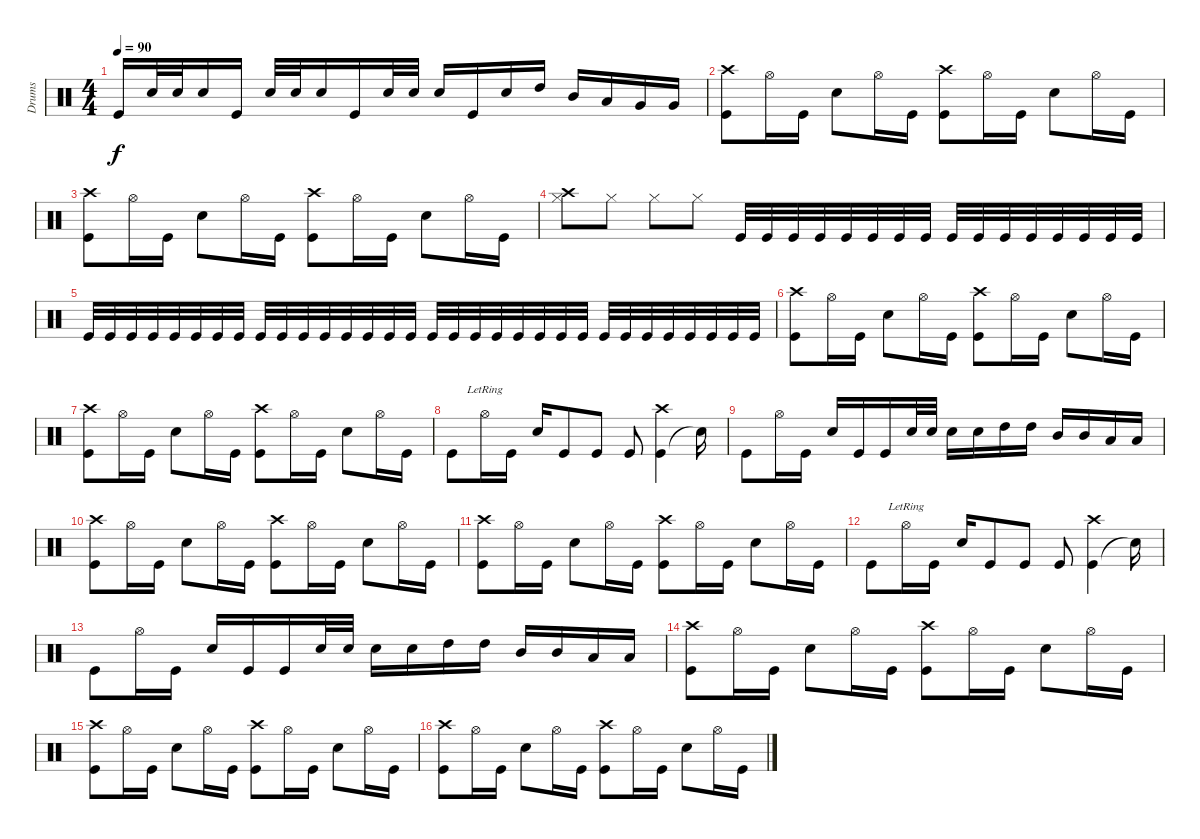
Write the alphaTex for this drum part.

\track ("Drums" "Drums") {instrument percussion}
\staff {score}
\articulation defaults
\ts (4 4)
\tempo 90
\clef neutral
\ks c "Kick (hit)".16{dy f} "Snare (hit) 2".32 "Snare (hit) 2".32 "Snare (hit) 2".16 "Kick (hit)".16 "Snare (hit) 2".32 "Snare (hit) 2".32 "Snare (hit) 2".16 "Kick (hit)".16 "Snare (hit) 2".32 "Snare (hit) 2".32 "Snare (hit) 2".16 "Kick (hit)".16 "Snare (hit) 2".16 "High Tom (hit)".16 "Mid Tom (hit)".16 "Low Tom (hit)".16 "Very Low Tom (hit)".16 "Very Low Tom (hit)".16
|
("Kick (hit)" "Crash high (hit)").8 "Hi-Hat (open)".16 "Kick (hit)".16 "Snare (hit) 2".8 "Hi-Hat (open)".16 "Kick (hit)".16 ("Kick (hit)" "Crash high (hit)").8 "Hi-Hat (open)".16 "Kick (hit)".16 "Snare (hit) 2".8 "Hi-Hat (open)".16 "Kick (hit)".16 |
("Kick (hit)" "Crash high (hit)").8 "Hi-Hat (open)".16 "Kick (hit)".16 "Snare (hit) 2".8 "Hi-Hat (open)".16 "Kick (hit)".16 ("Kick (hit)" "Crash high (hit)").8 "Hi-Hat (open)".16 "Kick (hit)".16 "Snare (hit) 2".8 "Hi-Hat (open)".16 "Kick (hit)".16 |
("Hi-Hat (closed)" "Crash high (hit)").8 "Hi-Hat (closed)".8 "Hi-Hat (closed)".8 "Hi-Hat (closed)".8 "Kick (hit)".32 "Kick (hit)".32 "Kick (hit)".32 "Kick (hit)".32 "Kick (hit)".32 "Kick (hit)".32 "Kick (hit)".32 "Kick (hit)".32 "Kick (hit)".32 "Kick (hit)".32 "Kick (hit)".32 "Kick (hit)".32 "Kick (hit)".32 "Kick (hit)".32 "Kick (hit)".32 "Kick (hit)".32 |
"Kick (hit)".32 "Kick (hit)".32 "Kick (hit)".32 "Kick (hit)".32 "Kick (hit)".32 "Kick (hit)".32 "Kick (hit)".32 "Kick (hit)".32 "Kick (hit)".32 "Kick (hit)".32 "Kick (hit)".32 "Kick (hit)".32 "Kick (hit)".32 "Kick (hit)".32 "Kick (hit)".32 "Kick (hit)".32 "Kick (hit)".32 "Kick (hit)".32 "Kick (hit)".32 "Kick (hit)".32 "Kick (hit)".32 "Kick (hit)".32 "Kick (hit)".32 "Kick (hit)".32 "Kick (hit)".32 "Kick (hit)".32 "Kick (hit)".32 "Kick (hit)".32 "Kick (hit)".32 "Kick (hit)".32 "Kick (hit)".32 "Kick (hit)".32 |
("Kick (hit)" "Crash high (hit)").8 "Hi-Hat (open)".16 "Kick (hit)".16 "Snare (hit) 2".8 "Hi-Hat (open)".16 "Kick (hit)".16 ("Kick (hit)" "Crash high (hit)").8 "Hi-Hat (open)".16 "Kick (hit)".16 "Snare (hit) 2".8 "Hi-Hat (open)".16 "Kick (hit)".16 |
("Kick (hit)" "Crash high (hit)").8 "Hi-Hat (open)".16 "Kick (hit)".16 "Snare (hit) 2".8 "Hi-Hat (open)".16 "Kick (hit)".16 ("Kick (hit)" "Crash high (hit)").8 "Hi-Hat (open)".16 "Kick (hit)".16 "Snare (hit) 2".8 "Hi-Hat (open)".16 "Kick (hit)".16 |
"Kick (hit)".8 "Hi-Hat (open)"{lr}.16 "Kick (hit)".16 "Snare (hit) 2".16 "Kick (hit)".8 "Kick (hit)".8 "Kick (hit)".8 ("Kick (hit)" "Crash high (hit)").4 "Snare (hit)"{t}.16 |
"Kick (hit)".8 "Hi-Hat (open)".16 "Kick (hit)".16 "Snare (hit) 2".16 "Kick (hit)".16 "Kick (hit)".16 "Snare (hit) 2".32 "Snare (hit) 2".32 "Snare (hit) 2".16 "Snare (hit) 2".16 "High Tom (hit)".16 "High Tom (hit)".16 "Mid Tom (hit)".16 "Mid Tom (hit)".16 "Low Tom (hit)".16 "Low Tom (hit)".16 |
("Kick (hit)" "Crash high (hit)").8 "Hi-Hat (open)".16 "Kick (hit)".16 "Snare (hit) 2".8 "Hi-Hat (open)".16 "Kick (hit)".16 ("Kick (hit)" "Crash high (hit)").8 "Hi-Hat (open)".16 "Kick (hit)".16 "Snare (hit) 2".8 "Hi-Hat (open)".16 "Kick (hit)".16 |
("Kick (hit)" "Crash high (hit)").8 "Hi-Hat (open)".16 "Kick (hit)".16 "Snare (hit) 2".8 "Hi-Hat (open)".16 "Kick (hit)".16 ("Kick (hit)" "Crash high (hit)").8 "Hi-Hat (open)".16 "Kick (hit)".16 "Snare (hit) 2".8 "Hi-Hat (open)".16 "Kick (hit)".16 |
"Kick (hit)".8 "Hi-Hat (open)"{lr}.16 "Kick (hit)".16 "Snare (hit) 2".16 "Kick (hit)".8 "Kick (hit)".8 "Kick (hit)".8 ("Kick (hit)" "Crash high (hit)").4 "Snare (hit)"{t}.16 |
"Kick (hit)".8 "Hi-Hat (open)".16 "Kick (hit)".16 "Snare (hit) 2".16 "Kick (hit)".16 "Kick (hit)".16 "Snare (hit) 2".32 "Snare (hit) 2".32 "Snare (hit) 2".16 "Snare (hit) 2".16 "High Tom (hit)".16 "High Tom (hit)".16 "Mid Tom (hit)".16 "Mid Tom (hit)".16 "Low Tom (hit)".16 "Low Tom (hit)".16 |
("Kick (hit)" "Crash high (hit)").8 "Hi-Hat (open)".16 "Kick (hit)".16 "Snare (hit) 2".8 "Hi-Hat (open)".16 "Kick (hit)".16 ("Kick (hit)" "Crash high (hit)").8 "Hi-Hat (open)".16 "Kick (hit)".16 "Snare (hit) 2".8 "Hi-Hat (open)".16 "Kick (hit)".16 |
("Kick (hit)" "Crash high (hit)").8 "Hi-Hat (open)".16 "Kick (hit)".16 "Snare (hit) 2".8 "Hi-Hat (open)".16 "Kick (hit)".16 ("Kick (hit)" "Crash high (hit)").8 "Hi-Hat (open)".16 "Kick (hit)".16 "Snare (hit) 2".8 "Hi-Hat (open)".16 "Kick (hit)".16 |
("Kick (hit)" "Crash high (hit)").8 "Hi-Hat (open)".16 "Kick (hit)".16 "Snare (hit) 2".8 "Hi-Hat (open)".16 "Kick (hit)".16 ("Kick (hit)" "Crash high (hit)").8 "Hi-Hat (open)".16 "Kick (hit)".16 "Snare (hit) 2".8 "Hi-Hat (open)".16 "Kick (hit)".16
